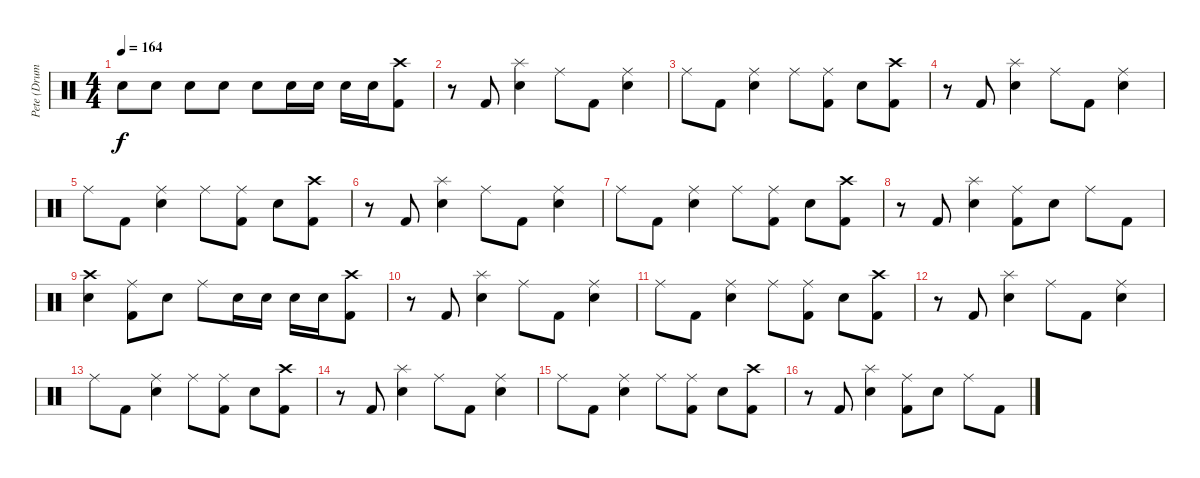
\track ("Pete (Drums)" "Pete (Drum") {instrument percussion}
\staff {score}
\articulation defaults
\ts (4 4)
\tempo 164
\clef neutral
\ks c "Snare (hit) 2".8{dy f} "Snare (hit) 2".8 "Snare (hit) 2".8 "Snare (hit) 2".8 "Snare (hit) 2".8 "Snare (hit) 2".16 "Snare (hit) 2".16 "Snare (hit) 2".16 "Snare (hit) 2".16
("Crash high (hit)" "Kick (hit) 2").8 |
r.8 "Kick (hit) 2".8 ("Splash (hit)" "Snare (hit) 2").4 "Ride (middle)".8 "Kick (hit) 2".8 ("Ride (middle)" "Snare (hit) 2").4 |
"Ride (middle)".8 "Kick (hit) 2".8 ("Ride (middle)" "Snare (hit) 2").4 "Ride (middle)".8 ("Ride (middle)" "Kick (hit) 2").8 "Snare (hit) 2".8 ("Crash high (hit)" "Kick (hit) 2").8 |
r.8 "Kick (hit) 2".8 ("Splash (hit)" "Snare (hit) 2").4 "Ride (middle)".8 "Kick (hit) 2".8 ("Ride (middle)" "Snare (hit) 2").4 |
"Ride (middle)".8 "Kick (hit) 2".8 ("Ride (middle)" "Snare (hit) 2").4 "Ride (middle)".8 ("Ride (middle)" "Kick (hit) 2").8 "Snare (hit) 2".8 ("Crash high (hit)" "Kick (hit) 2").8 |
r.8 "Kick (hit) 2".8 ("Splash (hit)" "Snare (hit) 2").4 "Ride (middle)".8 "Kick (hit) 2".8 ("Ride (middle)" "Snare (hit) 2").4 |
"Ride (middle)".8 "Kick (hit) 2".8 ("Ride (middle)" "Snare (hit) 2").4 "Ride (middle)".8 ("Ride (middle)" "Kick (hit) 2").8 "Snare (hit) 2".8 ("Crash high (hit)" "Kick (hit) 2").8 |
r.8 "Kick (hit) 2".8 ("Splash (hit)" "Snare (hit) 2").4 ("Ride (middle)" "Kick (hit) 2").8 "Snare (hit) 2".8 "Ride (middle)".8 "Kick (hit) 2".8 |
("Crash high (hit)" "Snare (hit) 2").4 ("Ride (middle)" "Kick (hit) 2").8 "Snare (hit) 2".8 "Ride (middle)".8 "Snare (hit) 2".16 "Snare (hit) 2".16 "Snare (hit) 2".16 "Snare (hit) 2".16 ("Crash high (hit)" "Kick (hit) 2").8 |
r.8 "Kick (hit) 2".8 ("Splash (hit)" "Snare (hit) 2").4 "Ride (middle)".8 "Kick (hit) 2".8 ("Ride (middle)" "Snare (hit) 2").4 |
"Ride (middle)".8 "Kick (hit) 2".8 ("Ride (middle)" "Snare (hit) 2").4 "Ride (middle)".8 ("Ride (middle)" "Kick (hit) 2").8 "Snare (hit) 2".8 ("Crash high (hit)" "Kick (hit) 2").8 |
r.8 "Kick (hit) 2".8 ("Splash (hit)" "Snare (hit) 2").4 "Ride (middle)".8 "Kick (hit) 2".8 ("Ride (middle)" "Snare (hit) 2").4 |
"Ride (middle)".8 "Kick (hit) 2".8 ("Ride (middle)" "Snare (hit) 2").4 "Ride (middle)".8 ("Ride (middle)" "Kick (hit) 2").8 "Snare (hit) 2".8 ("Crash high (hit)" "Kick (hit) 2").8 |
r.8 "Kick (hit) 2".8 ("Splash (hit)" "Snare (hit) 2").4 "Ride (middle)".8 "Kick (hit) 2".8 ("Ride (middle)" "Snare (hit) 2").4 |
"Ride (middle)".8 "Kick (hit) 2".8 ("Ride (middle)" "Snare (hit) 2").4 "Ride (middle)".8 ("Ride (middle)" "Kick (hit) 2").8 "Snare (hit) 2".8 ("Crash high (hit)" "Kick (hit) 2").8 |
r.8 "Kick (hit) 2".8 ("Splash (hit)" "Snare (hit) 2").4 ("Ride (middle)" "Kick (hit) 2").8 "Snare (hit) 2".8 "Ride (middle)".8 "Kick (hit) 2".8
